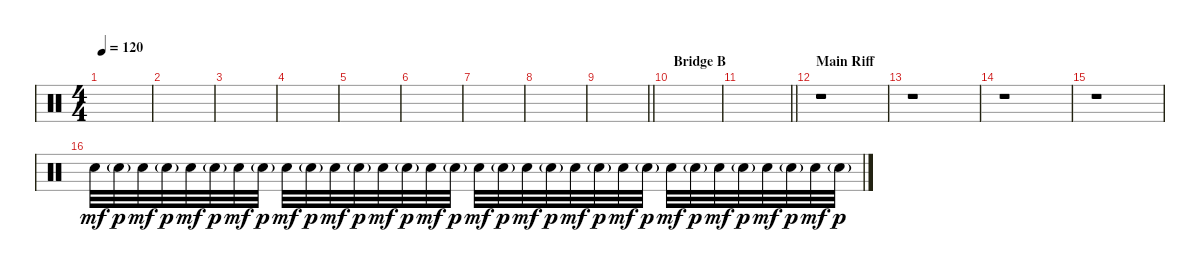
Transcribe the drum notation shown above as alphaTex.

\track "" {instrument percussion}
\staff {score}
\articulation defaults
\ts (4 4)
\tempo 120
\clef neutral
\ks c
|
|
|
|
|
|
|
|
\barLineRight lightlight
|
\section ("" "Bridge B")
|
\barLineRight lightlight
|
\section ("" "Main Riff")
r.1 |
r.1 |
r.1 |
r.1 |
"Electric Snare (hit)".32{dy mf} "Electric Snare (hit)"{g}.32{dy p} "Electric Snare (hit)".32{dy mf} "Electric Snare (hit)"{g}.32{dy p} "Electric Snare (hit)".32{dy mf} "Electric Snare (hit)"{g}.32{dy p} "Electric Snare (hit)".32{dy mf} "Electric Snare (hit)"{g}.32{dy p} "Electric Snare (hit)".32{dy mf} "Electric Snare (hit)"{g}.32{dy p} "Electric Snare (hit)".32{dy mf} "Electric Snare (hit)"{g}.32{dy p} "Electric Snare (hit)".32{dy mf} "Electric Snare (hit)"{g}.32{dy p} "Electric Snare (hit)".32{dy mf} "Electric Snare (hit)"{g}.32{dy p} "Electric Snare (hit)".32{dy mf} "Electric Snare (hit)"{g}.32{dy p} "Electric Snare (hit)".32{dy mf} "Electric Snare (hit)"{g}.32{dy p} "Electric Snare (hit)".32{dy mf} "Electric Snare (hit)"{g}.32{dy p} "Electric Snare (hit)".32{dy mf} "Electric Snare (hit)"{g}.32{dy p} "Electric Snare (hit)".32{dy mf} "Electric Snare (hit)"{g}.32{dy p} "Electric Snare (hit)".32{dy mf} "Electric Snare (hit)"{g}.32{dy p} "Electric Snare (hit)".32{dy mf} "Electric Snare (hit)"{g}.32{dy p} "Electric Snare (hit)".32{dy mf} "Electric Snare (hit)"{g}.32{dy p}
